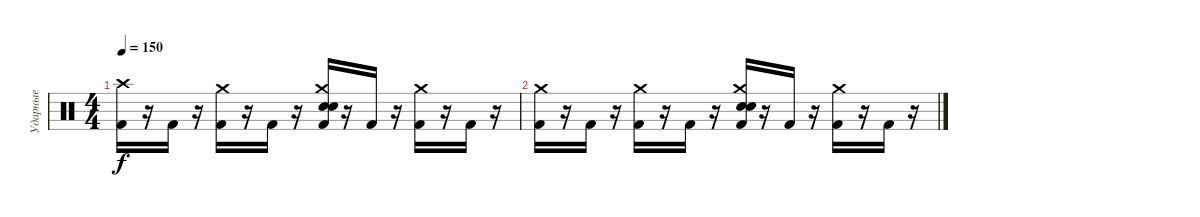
\track ("Ударные" "Ударные") {solo instrument percussion}
\staff {score}
\articulation defaults
\ts (4 4)
\tempo 150
\clef neutral
\ks c
("Crash high (hit)" "Kick (hit) 2").16{dy f} r.16 "Kick (hit) 2".16 r.16 ("Crash medium (hit)" "Kick (hit) 2").16 r.16 "Kick (hit) 2".16 r.16 ("Crash medium (hit)" "Electric Snare (hit)" "Snare (hit) 2" "Kick (hit) 2").16 r.16 "Kick (hit) 2".16 r.16 ("Crash medium (hit)" "Kick (hit) 2").16 r.16 "Kick (hit) 2".16 r.16 |
("Crash medium (hit)" "Kick (hit) 2").16 r.16 "Kick (hit) 2".16 r.16 ("Crash medium (hit)" "Kick (hit) 2").16 r.16 "Kick (hit) 2".16 r.16 ("Crash medium (hit)" "Electric Snare (hit)" "Snare (hit) 2" "Kick (hit) 2").16 r.16 "Kick (hit) 2".16 r.16 ("Crash medium (hit)" "Kick (hit) 2").16 r.16 "Kick (hit) 2".16 r.16
